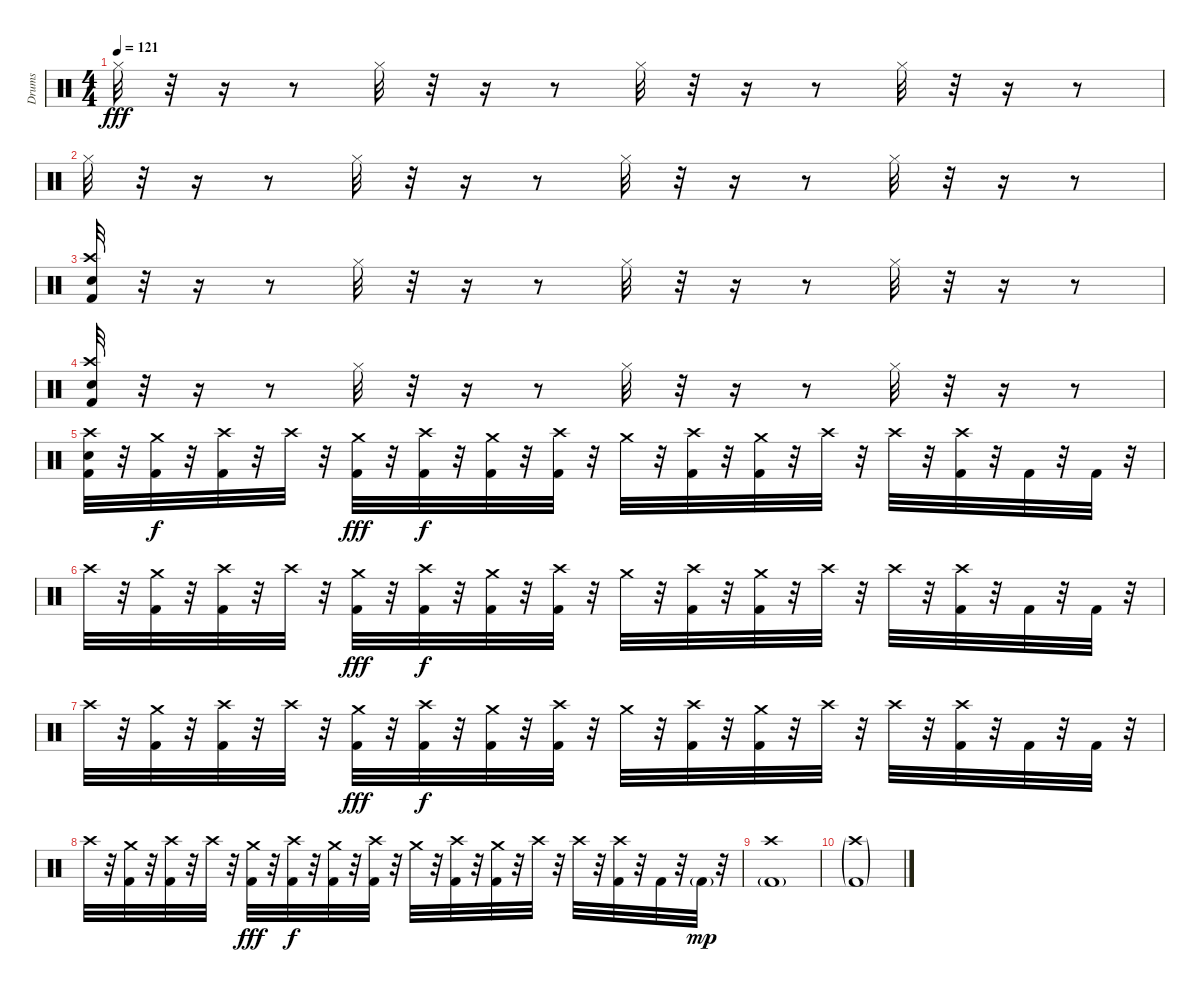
\track ("Drums" "Drums") {instrument percussion}
\staff {score}
\articulation defaults
\ts (4 4)
\tempo 121
\clef neutral
\ks c "Hi-Hat (closed)".32{dy fff}
r.32 r.16 r.8 "Hi-Hat (closed)".32 r.32 r.16 r.8 "Hi-Hat (closed)".32 r.32 r.16 r.8 "Hi-Hat (closed)".32 r.32 r.16 r.8 |
"Hi-Hat (closed)".32 r.32 r.16 r.8 "Hi-Hat (closed)".32 r.32 r.16 r.8 "Hi-Hat (closed)".32 r.32 r.16 r.8 "Hi-Hat (closed)".32 r.32 r.16 r.8 |
("Kick (hit) 2" "Crash high (hit)" "Electric Snare (hit)").32 r.32 r.16 r.8 "Hi-Hat (closed)".32 r.32 r.16 r.8 "Hi-Hat (closed)".32 r.32 r.16 r.8 "Hi-Hat (closed)".32 r.32 r.16 r.8 |
("Kick (hit) 2" "Crash high (hit)" "Electric Snare (hit)").32 r.32 r.16 r.8 "Hi-Hat (closed)".32 r.32 r.16 r.8 "Hi-Hat (closed)".32 r.32 r.16 r.8 "Hi-Hat (closed)".32 r.32 r.16 r.8 |
("Kick (hit) 2" "Crash high (hit)" "Electric Snare (hit)").32 r.32 ("Kick (hit) 2" "Crash medium (hit)").32{dy f} r.32 ("Kick (hit) 2" "Crash high (hit)").32 r.32 "Crash high (hit)".32 r.32 ("Kick (hit) 2" "Crash medium (hit)").32{dy fff} r.32 ("Kick (hit) 2" "Crash high (hit)").32{dy f} r.32 ("Kick (hit) 2" "Crash medium (hit)").32 r.32 ("Kick (hit) 2" "Crash high (hit)").32 r.32 "Crash medium (hit)".32 r.32 ("Kick (hit) 2" "Crash high (hit)").32 r.32 ("Kick (hit) 2" "Crash medium (hit)").32 r.32 "Crash high (hit)".32 r.32 "Crash high (hit)".32 r.32 ("Kick (hit) 2" "Crash high (hit)").32 r.32 "Kick (hit) 2".32 r.32 "Kick (hit) 2".32 r.32 |
"Crash high (hit)".32 r.32 ("Kick (hit) 2" "Crash medium (hit)").32 r.32 ("Kick (hit) 2" "Crash high (hit)").32 r.32 "Crash high (hit)".32 r.32 ("Kick (hit) 2" "Crash medium (hit)").32{dy fff} r.32 ("Kick (hit) 2" "Crash high (hit)").32{dy f} r.32 ("Kick (hit) 2" "Crash medium (hit)").32 r.32 ("Kick (hit) 2" "Crash high (hit)").32 r.32 "Crash medium (hit)".32 r.32 ("Kick (hit) 2" "Crash high (hit)").32 r.32 ("Kick (hit) 2" "Crash medium (hit)").32 r.32 "Crash high (hit)".32 r.32 "Crash high (hit)".32 r.32 ("Kick (hit) 2" "Crash high (hit)").32 r.32 "Kick (hit) 2".32 r.32 "Kick (hit) 2".32 r.32 |
"Crash high (hit)".32 r.32 ("Kick (hit) 2" "Crash medium (hit)").32 r.32 ("Kick (hit) 2" "Crash high (hit)").32 r.32 "Crash high (hit)".32 r.32 ("Kick (hit) 2" "Crash medium (hit)").32{dy fff} r.32 ("Kick (hit) 2" "Crash high (hit)").32{dy f} r.32 ("Kick (hit) 2" "Crash medium (hit)").32 r.32 ("Kick (hit) 2" "Crash high (hit)").32 r.32 "Crash medium (hit)".32 r.32 ("Kick (hit) 2" "Crash high (hit)").32 r.32 ("Kick (hit) 2" "Crash medium (hit)").32 r.32 "Crash high (hit)".32 r.32 "Crash high (hit)".32 r.32 ("Kick (hit) 2" "Crash high (hit)").32 r.32 "Kick (hit) 2".32 r.32 "Kick (hit) 2".32 r.32 |
"Crash high (hit)".32{volume 0} r.32 ("Kick (hit) 2" "Crash medium (hit)").32 r.32 ("Kick (hit) 2" "Crash high (hit)").32 r.32 "Crash high (hit)".32 r.32 ("Kick (hit) 2" "Crash medium (hit)").32{dy fff} r.32 ("Kick (hit) 2" "Crash high (hit)").32{dy f} r.32 ("Kick (hit) 2" "Crash medium (hit)").32 r.32 ("Kick (hit) 2" "Crash high (hit)").32 r.32 "Crash medium (hit)".32 r.32 ("Kick (hit) 2" "Crash high (hit)").32 r.32 ("Kick (hit) 2" "Crash medium (hit)").32 r.32 "Crash high (hit)".32 r.32 "Crash high (hit)".32 r.32 ("Kick (hit) 2" "Crash high (hit)").32 r.32 "Kick (hit) 2".32 r.32 "Kick (hit) 2"{g}.32{dy mp} r.32 |
("Kick (hit) 2"{g} "Crash high (hit)").1 |
("Kick (hit) 2"{g} "Crash high (hit)"{g}).1
